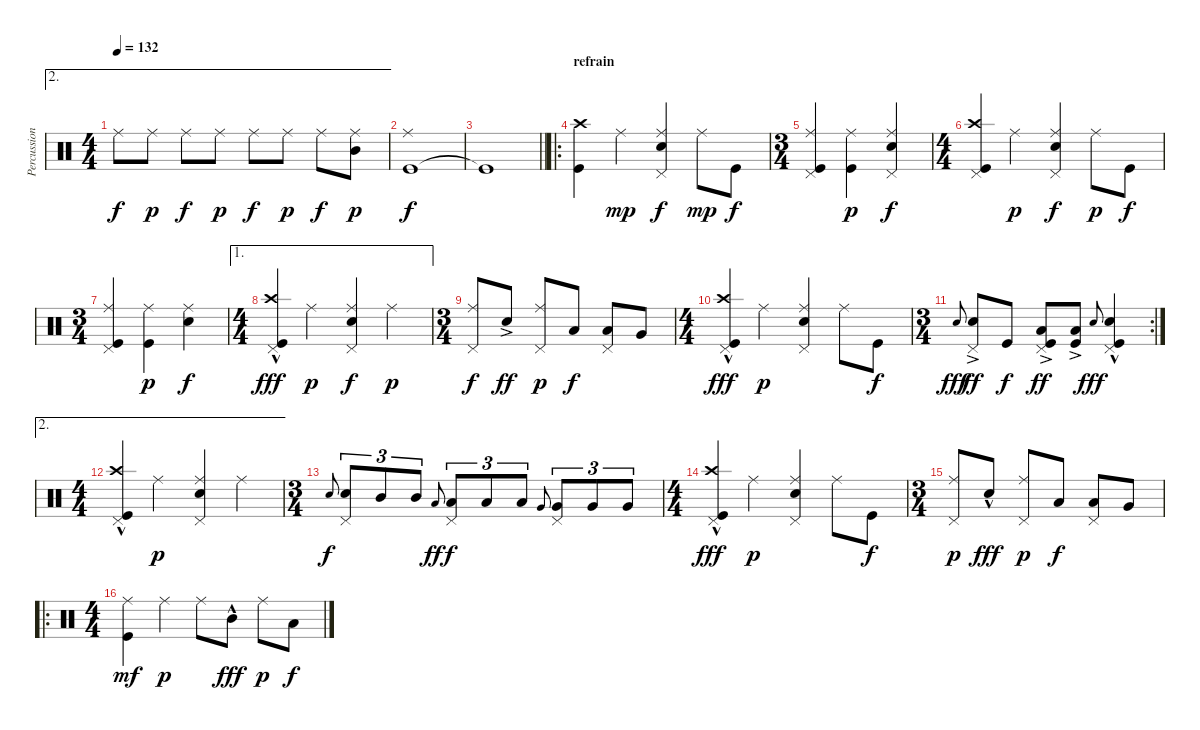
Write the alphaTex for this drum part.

\track ("Percussions" "Percussion") {instrument percussion}
\staff {score}
\articulation defaults
\ae 2
\ts (4 4)
\tempo 132
\clef neutral
\ks c "Ride (middle)".8{dy f} "Ride (middle)".8{dy p} "Ride (middle)".8{dy f} "Ride (middle)".8{dy p} "Ride (middle)".8{dy f} "Ride (middle)".8{dy p} "Ride (middle)".8{dy f}
("Ride (middle)" "Mid Tom (hit)").8{dy p} |
("Kick (hit)" "Ride (middle)").1{dy f} |
\barLineRight lightlight "Kick (hit)"{t}.1
|
\ro
\section ("" "refrain")
("Kick (hit)" "Crash high (hit)").4 "Ride (middle)".4{dy mp} ("Snare (hit) 2" "Pedal Hi-Hat (hit)" "Ride (middle)").4{dy f} "Ride (middle)".8{dy mp} "Kick (hit)".8{dy f} |
\ts (3 4)
("Kick (hit)" "Ride (middle)" "Pedal Hi-Hat (hit)").4 ("Kick (hit)" "Ride (middle)").4{dy p} ("Snare (hit) 2" "Ride (middle)" "Pedal Hi-Hat (hit)").4{dy f} |
\ts (4 4)
("Kick (hit)" "Crash high (hit)" "Pedal Hi-Hat (hit)").4 "Ride (middle)".4{dy p} ("Snare (hit) 2" "Ride (middle)" "Pedal Hi-Hat (hit)").4{dy f} "Ride (middle)".8{dy p} "Kick (hit)".8{dy f} |
\ts (3 4)
("Kick (hit)" "Ride (middle)" "Pedal Hi-Hat (hit)").4 ("Kick (hit)" "Ride (middle)").4{dy p} ("Snare (hit) 2" "Ride (middle)").4{dy f} |
\ae 1
\ts (4 4)
("Crash high (hit)"{hac} "Kick (hit)"{hac} "Pedal Hi-Hat (hit)").4{dy fff} "Ride (middle)".4{dy p} ("Snare (hit) 2" "Ride (middle)" "Pedal Hi-Hat (hit)").4{dy f} "Ride (middle)".4{dy p} |
\ts (3 4)
("Ride (middle)" "Pedal Hi-Hat (hit)").8{dy f} "Snare (hit) 2"{ac}.8{dy ff} ("Pedal Hi-Hat (hit)" "Ride (middle)").8{dy p} "Low Tom (hit)".8{dy f} ("Low Tom (hit)" "Pedal Hi-Hat (hit)").8 "Very Low Tom (hit)".8 |
\ts (4 4)
("Crash high (hit)"{hac} "Kick (hit)"{hac} "Pedal Hi-Hat (hit)").4{dy fff} "Ride (middle)".4{dy p} ("Snare (hit) 2" "Ride (middle)" "Pedal Hi-Hat (hit)").4 "Ride (middle)".8 "Kick (hit)".8{dy f} |
\rc 2
\ts (3 4)
"Snare (hit) 2".8{gr onbeat dy fff} ("Pedal Hi-Hat (hit)" "Snare (hit) 2"{ac}).8{dy ff} "Kick (hit)".8{dy f} ("Kick (hit)" "Pedal Hi-Hat (hit)" "Low Tom (hit)"{ac}).8{dy ff} ("Low Tom (hit)"{ac} "Kick (hit)").8 "Snare (hit) 2".8{gr onbeat dy fff} ("Kick (hit)" "Pedal Hi-Hat (hit)" "Snare (hit) 2"{hac}).4 |
\ae 2
\ts (4 4)
("Crash high (hit)"{hac} "Kick (hit)"{hac} "Pedal Hi-Hat (hit)").4 "Ride (middle)".4{dy p} ("Snare (hit) 2" "Ride (middle)" "Pedal Hi-Hat (hit)").4 "Ride (middle)".4 |
\ts (3 4)
"Snare (hit) 2".8{gr onbeat dy f} ("Pedal Hi-Hat (hit)" "Snare (hit) 2").8{tu (3 2)} "Mid Tom (hit)".8{tu (3 2)} "Mid Tom (hit)".8{tu (3 2)} "Low Tom (hit)".8{gr onbeat dy ff} ("Low Tom (hit)" "Pedal Hi-Hat (hit)").8{tu (3 2) dy f} "Low Tom (hit)".8{tu (3 2)} "Low Tom (hit)".8{tu (3 2)} "Very Low Tom (hit)".8{gr onbeat} ("Very Low Tom (hit)" "Pedal Hi-Hat (hit)").8{tu (3 2)} "Very Low Tom (hit)".8{tu (3 2)} "Very Low Tom (hit)".8{tu (3 2)} |
\ts (4 4)
("Crash high (hit)"{hac} "Kick (hit)"{hac} "Pedal Hi-Hat (hit)").4{dy fff} "Ride (middle)".4{dy p} ("Snare (hit) 2" "Ride (middle)" "Pedal Hi-Hat (hit)").4 "Ride (middle)".8 "Kick (hit)".8{dy f} |
\ts (3 4)
("Ride (middle)" "Pedal Hi-Hat (hit)").8{dy p} "Snare (hit) 2"{hac}.8{dy fff} ("Pedal Hi-Hat (hit)" "Ride (middle)").8{dy p} "Low Tom (hit)".8{dy f} ("Low Tom (hit)" "Pedal Hi-Hat (hit)").8 "Very Low Tom (hit)".8 |
\ro
\ts (4 4)
("Ride (middle)" "Kick (hit)").4{dy mf} "Ride (middle)".4{dy p} "Ride (middle)".8 "Mid Tom (hit)"{hac}.8{dy fff} "Ride (middle)".8{dy p} "Low Tom (hit)".8{dy f}
